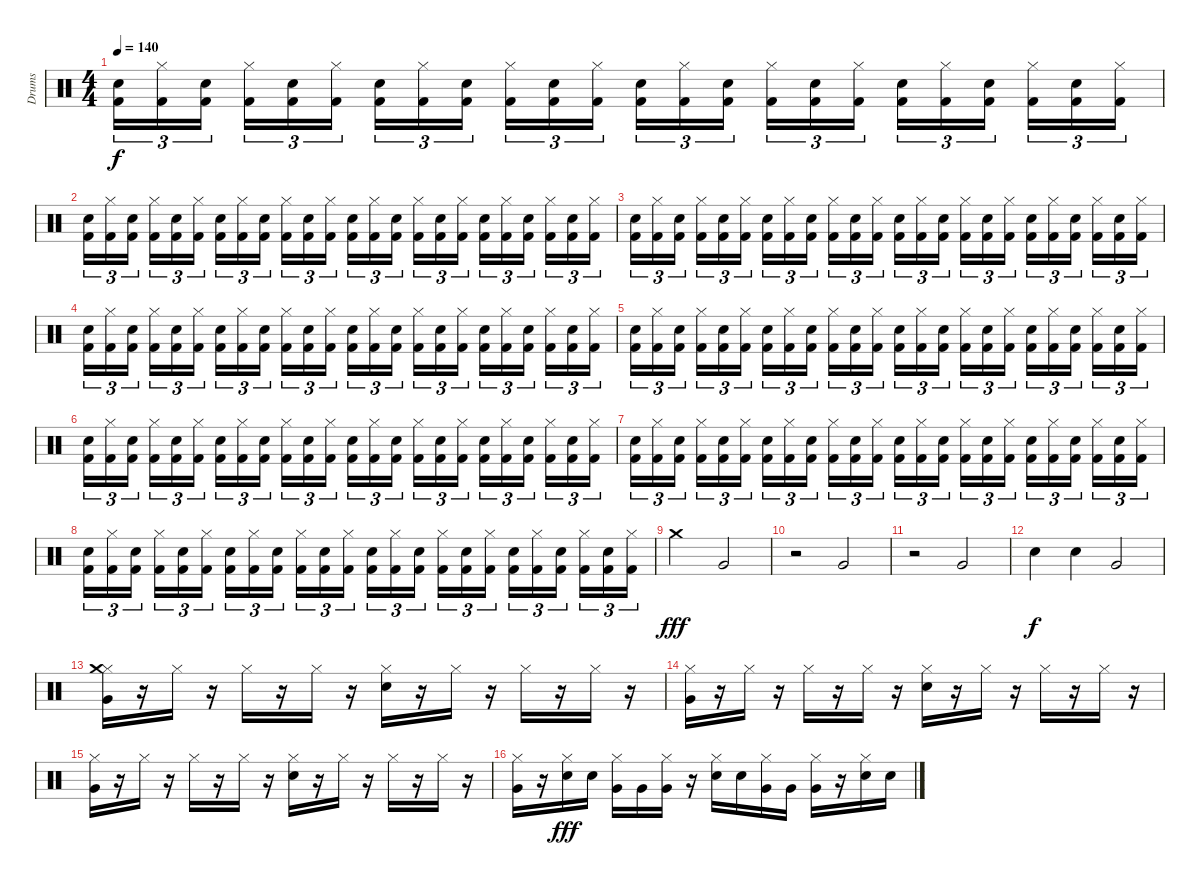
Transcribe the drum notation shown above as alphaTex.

\track ("Drums" "Drums") {instrument percussion}
\staff {score}
\articulation defaults
\ts (4 4)
\tempo 140
\clef neutral
\ks c
("Snare (hit) 2" "Kick (hit) 2").16{tu (3 2) dy f} ("Hi-Hat (closed)" "Kick (hit) 2").16{tu (3 2)} ("Snare (hit) 2" "Kick (hit) 2").16{tu (3 2)} ("Hi-Hat (closed)" "Kick (hit) 2").16{tu (3 2)} ("Snare (hit) 2" "Kick (hit) 2").16{tu (3 2)} ("Hi-Hat (closed)" "Kick (hit) 2").16{tu (3 2)} ("Snare (hit) 2" "Kick (hit) 2").16{tu (3 2)} ("Hi-Hat (closed)" "Kick (hit) 2").16{tu (3 2)} ("Snare (hit) 2" "Kick (hit) 2").16{tu (3 2)} ("Hi-Hat (closed)" "Kick (hit) 2").16{tu (3 2)} ("Snare (hit) 2" "Kick (hit) 2").16{tu (3 2)} ("Hi-Hat (closed)" "Kick (hit) 2").16{tu (3 2)} ("Snare (hit) 2" "Kick (hit) 2").16{tu (3 2)} ("Hi-Hat (closed)" "Kick (hit) 2").16{tu (3 2)} ("Snare (hit) 2" "Kick (hit) 2").16{tu (3 2)} ("Hi-Hat (closed)" "Kick (hit) 2").16{tu (3 2)} ("Snare (hit) 2" "Kick (hit) 2").16{tu (3 2)} ("Hi-Hat (closed)" "Kick (hit) 2").16{tu (3 2)} ("Snare (hit) 2" "Kick (hit) 2").16{tu (3 2)} ("Hi-Hat (closed)" "Kick (hit) 2").16{tu (3 2)} ("Snare (hit) 2" "Kick (hit) 2").16{tu (3 2)} ("Hi-Hat (closed)" "Kick (hit) 2").16{tu (3 2)} ("Snare (hit) 2" "Kick (hit) 2").16{tu (3 2)} ("Hi-Hat (closed)" "Kick (hit) 2").16{tu (3 2)} |
("Snare (hit) 2" "Kick (hit) 2").16{tu (3 2)} ("Hi-Hat (closed)" "Kick (hit) 2").16{tu (3 2)} ("Snare (hit) 2" "Kick (hit) 2").16{tu (3 2)} ("Hi-Hat (closed)" "Kick (hit) 2").16{tu (3 2)} ("Snare (hit) 2" "Kick (hit) 2").16{tu (3 2)} ("Hi-Hat (closed)" "Kick (hit) 2").16{tu (3 2)} ("Snare (hit) 2" "Kick (hit) 2").16{tu (3 2)} ("Hi-Hat (closed)" "Kick (hit) 2").16{tu (3 2)} ("Snare (hit) 2" "Kick (hit) 2").16{tu (3 2)} ("Hi-Hat (closed)" "Kick (hit) 2").16{tu (3 2)} ("Snare (hit) 2" "Kick (hit) 2").16{tu (3 2)} ("Hi-Hat (closed)" "Kick (hit) 2").16{tu (3 2)} ("Snare (hit) 2" "Kick (hit) 2").16{tu (3 2)} ("Hi-Hat (closed)" "Kick (hit) 2").16{tu (3 2)} ("Snare (hit) 2" "Kick (hit) 2").16{tu (3 2)} ("Hi-Hat (closed)" "Kick (hit) 2").16{tu (3 2)} ("Snare (hit) 2" "Kick (hit) 2").16{tu (3 2)} ("Hi-Hat (closed)" "Kick (hit) 2").16{tu (3 2)} ("Snare (hit) 2" "Kick (hit) 2").16{tu (3 2)} ("Hi-Hat (closed)" "Kick (hit) 2").16{tu (3 2)} ("Snare (hit) 2" "Kick (hit) 2").16{tu (3 2)} ("Hi-Hat (closed)" "Kick (hit) 2").16{tu (3 2)} ("Snare (hit) 2" "Kick (hit) 2").16{tu (3 2)} ("Hi-Hat (closed)" "Kick (hit) 2").16{tu (3 2)} |
("Snare (hit) 2" "Kick (hit) 2").16{tu (3 2)} ("Hi-Hat (closed)" "Kick (hit) 2").16{tu (3 2)} ("Snare (hit) 2" "Kick (hit) 2").16{tu (3 2)} ("Hi-Hat (closed)" "Kick (hit) 2").16{tu (3 2)} ("Snare (hit) 2" "Kick (hit) 2").16{tu (3 2)} ("Hi-Hat (closed)" "Kick (hit) 2").16{tu (3 2)} ("Snare (hit) 2" "Kick (hit) 2").16{tu (3 2)} ("Hi-Hat (closed)" "Kick (hit) 2").16{tu (3 2)} ("Snare (hit) 2" "Kick (hit) 2").16{tu (3 2)} ("Hi-Hat (closed)" "Kick (hit) 2").16{tu (3 2)} ("Snare (hit) 2" "Kick (hit) 2").16{tu (3 2)} ("Hi-Hat (closed)" "Kick (hit) 2").16{tu (3 2)} ("Snare (hit) 2" "Kick (hit) 2").16{tu (3 2)} ("Hi-Hat (closed)" "Kick (hit) 2").16{tu (3 2)} ("Snare (hit) 2" "Kick (hit) 2").16{tu (3 2)} ("Hi-Hat (closed)" "Kick (hit) 2").16{tu (3 2)} ("Snare (hit) 2" "Kick (hit) 2").16{tu (3 2)} ("Hi-Hat (closed)" "Kick (hit) 2").16{tu (3 2)} ("Snare (hit) 2" "Kick (hit) 2").16{tu (3 2)} ("Hi-Hat (closed)" "Kick (hit) 2").16{tu (3 2)} ("Snare (hit) 2" "Kick (hit) 2").16{tu (3 2)} ("Hi-Hat (closed)" "Kick (hit) 2").16{tu (3 2)} ("Snare (hit) 2" "Kick (hit) 2").16{tu (3 2)} ("Hi-Hat (closed)" "Kick (hit) 2").16{tu (3 2)} |
("Snare (hit) 2" "Kick (hit) 2").16{tu (3 2)} ("Hi-Hat (closed)" "Kick (hit) 2").16{tu (3 2)} ("Snare (hit) 2" "Kick (hit) 2").16{tu (3 2)} ("Hi-Hat (closed)" "Kick (hit) 2").16{tu (3 2)} ("Snare (hit) 2" "Kick (hit) 2").16{tu (3 2)} ("Hi-Hat (closed)" "Kick (hit) 2").16{tu (3 2)} ("Snare (hit) 2" "Kick (hit) 2").16{tu (3 2)} ("Hi-Hat (closed)" "Kick (hit) 2").16{tu (3 2)} ("Snare (hit) 2" "Kick (hit) 2").16{tu (3 2)} ("Hi-Hat (closed)" "Kick (hit) 2").16{tu (3 2)} ("Snare (hit) 2" "Kick (hit) 2").16{tu (3 2)} ("Hi-Hat (closed)" "Kick (hit) 2").16{tu (3 2)} ("Snare (hit) 2" "Kick (hit) 2").16{tu (3 2)} ("Hi-Hat (closed)" "Kick (hit) 2").16{tu (3 2)} ("Snare (hit) 2" "Kick (hit) 2").16{tu (3 2)} ("Hi-Hat (closed)" "Kick (hit) 2").16{tu (3 2)} ("Snare (hit) 2" "Kick (hit) 2").16{tu (3 2)} ("Hi-Hat (closed)" "Kick (hit) 2").16{tu (3 2)} ("Snare (hit) 2" "Kick (hit) 2").16{tu (3 2)} ("Hi-Hat (closed)" "Kick (hit) 2").16{tu (3 2)} ("Snare (hit) 2" "Kick (hit) 2").16{tu (3 2)} ("Hi-Hat (closed)" "Kick (hit) 2").16{tu (3 2)} ("Snare (hit) 2" "Kick (hit) 2").16{tu (3 2)} ("Hi-Hat (closed)" "Kick (hit) 2").16{tu (3 2)} |
("Snare (hit) 2" "Kick (hit) 2").16{tu (3 2)} ("Hi-Hat (closed)" "Kick (hit) 2").16{tu (3 2)} ("Snare (hit) 2" "Kick (hit) 2").16{tu (3 2)} ("Hi-Hat (closed)" "Kick (hit) 2").16{tu (3 2)} ("Snare (hit) 2" "Kick (hit) 2").16{tu (3 2)} ("Hi-Hat (closed)" "Kick (hit) 2").16{tu (3 2)} ("Snare (hit) 2" "Kick (hit) 2").16{tu (3 2)} ("Hi-Hat (closed)" "Kick (hit) 2").16{tu (3 2)} ("Snare (hit) 2" "Kick (hit) 2").16{tu (3 2)} ("Hi-Hat (closed)" "Kick (hit) 2").16{tu (3 2)} ("Snare (hit) 2" "Kick (hit) 2").16{tu (3 2)} ("Hi-Hat (closed)" "Kick (hit) 2").16{tu (3 2)} ("Snare (hit) 2" "Kick (hit) 2").16{tu (3 2)} ("Hi-Hat (closed)" "Kick (hit) 2").16{tu (3 2)} ("Snare (hit) 2" "Kick (hit) 2").16{tu (3 2)} ("Hi-Hat (closed)" "Kick (hit) 2").16{tu (3 2)} ("Snare (hit) 2" "Kick (hit) 2").16{tu (3 2)} ("Hi-Hat (closed)" "Kick (hit) 2").16{tu (3 2)} ("Snare (hit) 2" "Kick (hit) 2").16{tu (3 2)} ("Hi-Hat (closed)" "Kick (hit) 2").16{tu (3 2)} ("Snare (hit) 2" "Kick (hit) 2").16{tu (3 2)} ("Hi-Hat (closed)" "Kick (hit) 2").16{tu (3 2)} ("Snare (hit) 2" "Kick (hit) 2").16{tu (3 2)} ("Hi-Hat (closed)" "Kick (hit) 2").16{tu (3 2)} |
("Snare (hit) 2" "Kick (hit) 2").16{tu (3 2)} ("Hi-Hat (closed)" "Kick (hit) 2").16{tu (3 2)} ("Snare (hit) 2" "Kick (hit) 2").16{tu (3 2)} ("Hi-Hat (closed)" "Kick (hit) 2").16{tu (3 2)} ("Snare (hit) 2" "Kick (hit) 2").16{tu (3 2)} ("Hi-Hat (closed)" "Kick (hit) 2").16{tu (3 2)} ("Snare (hit) 2" "Kick (hit) 2").16{tu (3 2)} ("Hi-Hat (closed)" "Kick (hit) 2").16{tu (3 2)} ("Snare (hit) 2" "Kick (hit) 2").16{tu (3 2)} ("Hi-Hat (closed)" "Kick (hit) 2").16{tu (3 2)} ("Snare (hit) 2" "Kick (hit) 2").16{tu (3 2)} ("Hi-Hat (closed)" "Kick (hit) 2").16{tu (3 2)} ("Snare (hit) 2" "Kick (hit) 2").16{tu (3 2)} ("Hi-Hat (closed)" "Kick (hit) 2").16{tu (3 2)} ("Snare (hit) 2" "Kick (hit) 2").16{tu (3 2)} ("Hi-Hat (closed)" "Kick (hit) 2").16{tu (3 2)} ("Snare (hit) 2" "Kick (hit) 2").16{tu (3 2)} ("Hi-Hat (closed)" "Kick (hit) 2").16{tu (3 2)} ("Snare (hit) 2" "Kick (hit) 2").16{tu (3 2)} ("Hi-Hat (closed)" "Kick (hit) 2").16{tu (3 2)} ("Snare (hit) 2" "Kick (hit) 2").16{tu (3 2)} ("Hi-Hat (closed)" "Kick (hit) 2").16{tu (3 2)} ("Snare (hit) 2" "Kick (hit) 2").16{tu (3 2)} ("Hi-Hat (closed)" "Kick (hit) 2").16{tu (3 2)} |
("Snare (hit) 2" "Kick (hit) 2").16{tu (3 2)} ("Hi-Hat (closed)" "Kick (hit) 2").16{tu (3 2)} ("Snare (hit) 2" "Kick (hit) 2").16{tu (3 2)} ("Hi-Hat (closed)" "Kick (hit) 2").16{tu (3 2)} ("Snare (hit) 2" "Kick (hit) 2").16{tu (3 2)} ("Hi-Hat (closed)" "Kick (hit) 2").16{tu (3 2)} ("Snare (hit) 2" "Kick (hit) 2").16{tu (3 2)} ("Hi-Hat (closed)" "Kick (hit) 2").16{tu (3 2)} ("Snare (hit) 2" "Kick (hit) 2").16{tu (3 2)} ("Hi-Hat (closed)" "Kick (hit) 2").16{tu (3 2)} ("Snare (hit) 2" "Kick (hit) 2").16{tu (3 2)} ("Hi-Hat (closed)" "Kick (hit) 2").16{tu (3 2)} ("Snare (hit) 2" "Kick (hit) 2").16{tu (3 2)} ("Hi-Hat (closed)" "Kick (hit) 2").16{tu (3 2)} ("Snare (hit) 2" "Kick (hit) 2").16{tu (3 2)} ("Hi-Hat (closed)" "Kick (hit) 2").16{tu (3 2)} ("Snare (hit) 2" "Kick (hit) 2").16{tu (3 2)} ("Hi-Hat (closed)" "Kick (hit) 2").16{tu (3 2)} ("Snare (hit) 2" "Kick (hit) 2").16{tu (3 2)} ("Hi-Hat (closed)" "Kick (hit) 2").16{tu (3 2)} ("Snare (hit) 2" "Kick (hit) 2").16{tu (3 2)} ("Hi-Hat (closed)" "Kick (hit) 2").16{tu (3 2)} ("Snare (hit) 2" "Kick (hit) 2").16{tu (3 2)} ("Hi-Hat (closed)" "Kick (hit) 2").16{tu (3 2)} |
("Snare (hit) 2" "Kick (hit) 2").16{tu (3 2)} ("Hi-Hat (closed)" "Kick (hit) 2").16{tu (3 2)} ("Snare (hit) 2" "Kick (hit) 2").16{tu (3 2)} ("Hi-Hat (closed)" "Kick (hit) 2").16{tu (3 2)} ("Snare (hit) 2" "Kick (hit) 2").16{tu (3 2)} ("Hi-Hat (closed)" "Kick (hit) 2").16{tu (3 2)} ("Snare (hit) 2" "Kick (hit) 2").16{tu (3 2)} ("Hi-Hat (closed)" "Kick (hit) 2").16{tu (3 2)} ("Snare (hit) 2" "Kick (hit) 2").16{tu (3 2)} ("Hi-Hat (closed)" "Kick (hit) 2").16{tu (3 2)} ("Snare (hit) 2" "Kick (hit) 2").16{tu (3 2)} ("Hi-Hat (closed)" "Kick (hit) 2").16{tu (3 2)} ("Snare (hit) 2" "Kick (hit) 2").16{tu (3 2)} ("Hi-Hat (closed)" "Kick (hit) 2").16{tu (3 2)} ("Snare (hit) 2" "Kick (hit) 2").16{tu (3 2)} ("Hi-Hat (closed)" "Kick (hit) 2").16{tu (3 2)} ("Snare (hit) 2" "Kick (hit) 2").16{tu (3 2)} ("Hi-Hat (closed)" "Kick (hit) 2").16{tu (3 2)} ("Snare (hit) 2" "Kick (hit) 2").16{tu (3 2)} ("Hi-Hat (closed)" "Kick (hit) 2").16{tu (3 2)} ("Snare (hit) 2" "Kick (hit) 2").16{tu (3 2)} ("Hi-Hat (closed)" "Kick (hit) 2").16{tu (3 2)} ("Snare (hit) 2" "Kick (hit) 2").16{tu (3 2)} ("Hi-Hat (closed)" "Kick (hit) 2").16{tu (3 2)} |
"Crash medium (hit)".2{dy fff} "Very Low Tom (hit)".2 |
r.2 "Very Low Tom (hit)".2 |
r.2 "Very Low Tom (hit)".2 |
"Snare (hit) 2".4{dy f} "Snare (hit) 2".4 "Very Low Tom (hit)".2 |
("Hi-Hat (closed)" "Very Low Tom (hit)" "Crash medium (hit)").16 r.16 "Hi-Hat (closed)".16 r.16 "Hi-Hat (closed)".16 r.16 "Hi-Hat (closed)".16 r.16 ("Hi-Hat (closed)" "Snare (hit) 2").16 r.16 "Hi-Hat (closed)".16 r.16 "Hi-Hat (closed)".16 r.16 "Hi-Hat (closed)".16 r.16 |
("Hi-Hat (closed)" "Very Low Tom (hit)").16 r.16 "Hi-Hat (closed)".16 r.16 "Hi-Hat (closed)".16 r.16 "Hi-Hat (closed)".16 r.16 ("Hi-Hat (closed)" "Snare (hit) 2").16 r.16 "Hi-Hat (closed)".16 r.16 "Hi-Hat (closed)".16 r.16 "Hi-Hat (closed)".16 r.16 |
("Hi-Hat (closed)" "Very Low Tom (hit)").16 r.16 "Hi-Hat (closed)".16 r.16 "Hi-Hat (closed)".16 r.16 "Hi-Hat (closed)".16 r.16 ("Hi-Hat (closed)" "Snare (hit) 2").16 r.16 "Hi-Hat (closed)".16 r.16 "Hi-Hat (closed)".16 r.16 "Hi-Hat (closed)".16 r.16 |
("Hi-Hat (closed)" "Very Low Tom (hit)").16 r.16 ("Hi-Hat (closed)" "Snare (hit) 2").16{dy fff} "Snare (hit) 2".16 ("Hi-Hat (closed)" "Very Low Tom (hit)").16 "Very Low Tom (hit)".16 ("Hi-Hat (closed)" "Very Low Tom (hit)").16 r.16 ("Hi-Hat (closed)" "Snare (hit) 2").16 "Snare (hit) 2".16 ("Hi-Hat (closed)" "Very Low Tom (hit)").16 "Very Low Tom (hit)".16 ("Hi-Hat (closed)" "Very Low Tom (hit)").16 r.16 ("Hi-Hat (closed)" "Snare (hit) 2").16 "Snare (hit) 2".16
